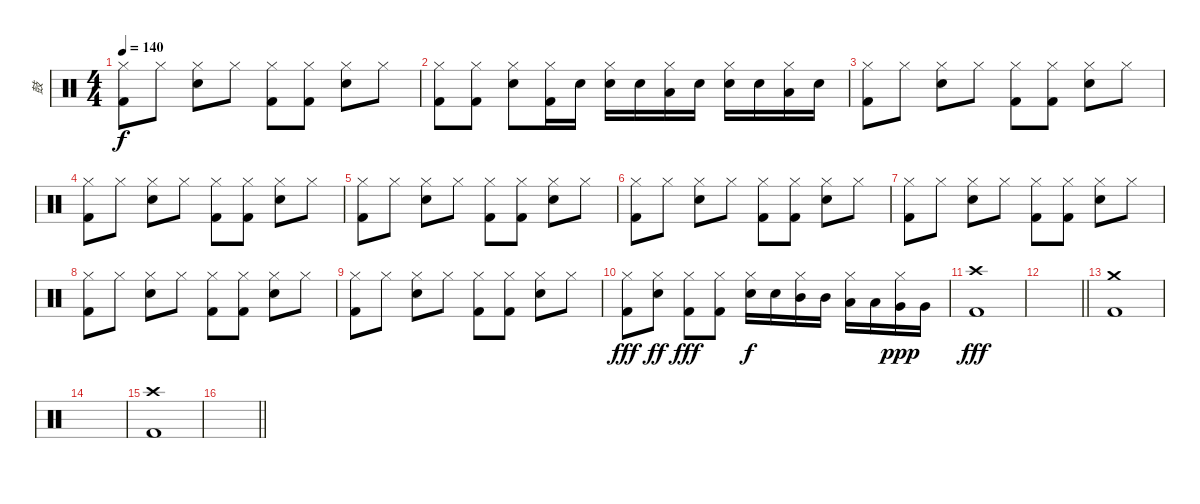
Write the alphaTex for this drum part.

\track ("鼓" "鼓") {instrument percussion}
\staff {score}
\articulation defaults
\ts (4 4)
\tempo 140
\clef neutral
\ks c
("Hi-Hat (closed)" "Kick (hit) 2").8{dy f} "Hi-Hat (closed)".8 ("Hi-Hat (closed)" "Snare (hit) 2").8 "Hi-Hat (closed)".8 ("Hi-Hat (closed)" "Kick (hit) 2").8 ("Hi-Hat (closed)" "Kick (hit) 2").8 ("Hi-Hat (closed)" "Snare (hit) 2").8 "Hi-Hat (closed)".8 |
("Hi-Hat (closed)" "Kick (hit) 2").8 ("Hi-Hat (closed)" "Kick (hit) 2").8 ("Hi-Hat (closed)" "Snare (hit) 2").8 ("Hi-Hat (closed)" "Kick (hit) 2").16 "Snare (hit) 2".16 ("Hi-Hat (closed)" "Snare (hit) 2").16 "Snare (hit) 2".16 ("Hi-Hat (closed)" "Low Tom (hit)").16 "Snare (hit) 2".16 ("Hi-Hat (closed)" "Snare (hit) 2").16 "Snare (hit) 2".16 ("Hi-Hat (closed)" "Low Tom (hit)").16 "Snare (hit) 2".16 |
("Hi-Hat (closed)" "Kick (hit) 2").8 "Hi-Hat (closed)".8 ("Hi-Hat (closed)" "Snare (hit) 2").8 "Hi-Hat (closed)".8 ("Hi-Hat (closed)" "Kick (hit) 2").8 ("Hi-Hat (closed)" "Kick (hit) 2").8 ("Hi-Hat (closed)" "Snare (hit) 2").8 "Hi-Hat (closed)".8 |
("Hi-Hat (closed)" "Kick (hit) 2").8 "Hi-Hat (closed)".8 ("Hi-Hat (closed)" "Snare (hit) 2").8 "Hi-Hat (closed)".8 ("Hi-Hat (closed)" "Kick (hit) 2").8 ("Hi-Hat (closed)" "Kick (hit) 2").8 ("Hi-Hat (closed)" "Snare (hit) 2").8 "Hi-Hat (closed)".8 |
("Hi-Hat (closed)" "Kick (hit) 2").8 "Hi-Hat (closed)".8 ("Hi-Hat (closed)" "Snare (hit) 2").8 "Hi-Hat (closed)".8 ("Hi-Hat (closed)" "Kick (hit) 2").8 ("Hi-Hat (closed)" "Kick (hit) 2").8 ("Hi-Hat (closed)" "Snare (hit) 2").8 "Hi-Hat (closed)".8 |
("Hi-Hat (closed)" "Kick (hit) 2").8 "Hi-Hat (closed)".8 ("Hi-Hat (closed)" "Snare (hit) 2").8 "Hi-Hat (closed)".8 ("Hi-Hat (closed)" "Kick (hit) 2").8 ("Hi-Hat (closed)" "Kick (hit) 2").8 ("Hi-Hat (closed)" "Snare (hit) 2").8 "Hi-Hat (closed)".8 |
("Hi-Hat (closed)" "Kick (hit) 2").8 "Hi-Hat (closed)".8 ("Hi-Hat (closed)" "Snare (hit) 2").8 "Hi-Hat (closed)".8 ("Hi-Hat (closed)" "Kick (hit) 2").8 ("Hi-Hat (closed)" "Kick (hit) 2").8 ("Hi-Hat (closed)" "Snare (hit) 2").8 "Hi-Hat (closed)".8 |
("Hi-Hat (closed)" "Kick (hit) 2").8 "Hi-Hat (closed)".8 ("Hi-Hat (closed)" "Snare (hit) 2").8 "Hi-Hat (closed)".8 ("Hi-Hat (closed)" "Kick (hit) 2").8 ("Hi-Hat (closed)" "Kick (hit) 2").8 ("Hi-Hat (closed)" "Snare (hit) 2").8 "Hi-Hat (closed)".8 |
("Hi-Hat (closed)" "Kick (hit) 2").8 "Hi-Hat (closed)".8 ("Hi-Hat (closed)" "Snare (hit) 2").8 "Hi-Hat (closed)".8 ("Hi-Hat (closed)" "Kick (hit) 2").8 ("Hi-Hat (closed)" "Kick (hit) 2").8 ("Hi-Hat (closed)" "Snare (hit) 2").8 "Hi-Hat (closed)".8 |
("Hi-Hat (closed)" "Kick (hit) 2").8{dy fff} ("Hi-Hat (closed)" "Snare (hit) 2").8{dy ff} ("Hi-Hat (closed)" "Kick (hit) 2").8{dy fff} ("Hi-Hat (closed)" "Kick (hit) 2").8 ("Hi-Hat (closed)" "Snare (hit) 2").16{dy f} "Snare (hit) 2".16 ("Hi-Hat (closed)" "Mid Tom (hit)").16 "Mid Tom (hit)".16 ("Hi-Hat (closed)" "Low Tom (hit)").16 "Low Tom (hit)".16 ("Hi-Hat (closed)" "Very Low Tom (hit)").16{dy ppp} "Very Low Tom (hit)".16 |
("Crash high (hit)" "Kick (hit) 2").1{dy fff} |
\barLineRight lightlight
|
("Crash medium (hit)" "Kick (hit) 2").1 |
|
("Crash high (hit)" "Kick (hit) 2").1 |
\barLineRight lightlight
